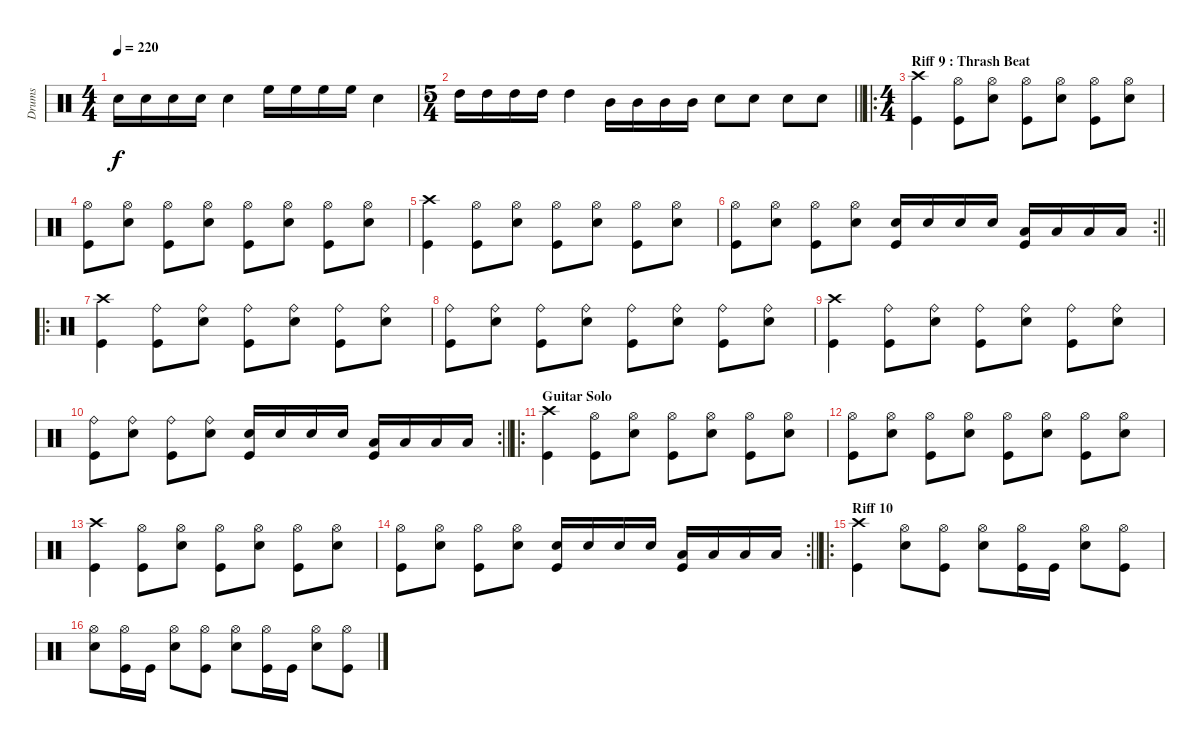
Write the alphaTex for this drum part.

\track ("Drums" "Drums") {instrument percussion}
\staff {score}
\articulation defaults
\ts (4 4)
\tempo 220
\clef neutral
\ks c "Electric Snare (hit)".16{dy f} "Electric Snare (hit)".16 "Electric Snare (hit)".16 "Electric Snare (hit)".16 "Snare (hit)".4 "High Floor Tom (hit)".16 "High Floor Tom (hit)".16 "High Floor Tom (hit)".16 "High Floor Tom (hit)".16 "Snare (hit)".4
|
\ts (5 4)
\barLineRight lightlight "High Tom (hit)".16 "High Tom (hit)".16 "High Tom (hit)".16 "High Tom (hit)".16 "High Tom (hit)".4 "Mid Tom (hit)".16 "Mid Tom (hit)".16 "Mid Tom (hit)".16 "Mid Tom (hit)".16 "Electric Snare (hit)".8 "Electric Snare (hit)".8 "Electric Snare (hit)".8 "Electric Snare (hit)".8
|
\ro
\ts (4 4)
\section ("" "Riff 9 : Thrash Beat")
("Crash high (hit)" "Kick (hit)").4 ("Hi-Hat (open)" "Kick (hit)").8 ("Hi-Hat (open)" "Electric Snare (hit)").8 ("Hi-Hat (open)" "Kick (hit)").8 ("Hi-Hat (open)" "Electric Snare (hit)").8 ("Hi-Hat (open)" "Kick (hit)").8 ("Hi-Hat (open)" "Electric Snare (hit)").8 |
("Hi-Hat (open)" "Kick (hit)").8 ("Hi-Hat (open)" "Electric Snare (hit)").8 ("Hi-Hat (open)" "Kick (hit)").8 ("Hi-Hat (open)" "Electric Snare (hit)").8 ("Hi-Hat (open)" "Kick (hit)").8 ("Hi-Hat (open)" "Electric Snare (hit)").8 ("Hi-Hat (open)" "Kick (hit)").8 ("Hi-Hat (open)" "Electric Snare (hit)").8 |
("Crash high (hit)" "Kick (hit)").4 ("Hi-Hat (open)" "Kick (hit)").8 ("Hi-Hat (open)" "Electric Snare (hit)").8 ("Hi-Hat (open)" "Kick (hit)").8 ("Hi-Hat (open)" "Electric Snare (hit)").8 ("Hi-Hat (open)" "Kick (hit)").8 ("Hi-Hat (open)" "Electric Snare (hit)").8 |
\rc 2
\barLineRight lightlight
("Hi-Hat (open)" "Kick (hit)").8 ("Hi-Hat (open)" "Electric Snare (hit)").8 ("Hi-Hat (open)" "Kick (hit)").8 ("Hi-Hat (open)" "Electric Snare (hit)").8 ("Electric Snare (hit)" "Kick (hit)").16 "Electric Snare (hit)".16 "Electric Snare (hit)".16 "Electric Snare (hit)".16 ("Low Tom (hit)" "Kick (hit)").16 "Low Tom (hit)".16 "Low Tom (hit)".16 "Low Tom (hit)".16 |
\ro
("Crash high (hit)" "Kick (hit)").4 ("Ride (bell)" "Kick (hit)").8 ("Ride (bell)" "Electric Snare (hit)").8 ("Ride (bell)" "Kick (hit)").8 ("Ride (bell)" "Electric Snare (hit)").8 ("Ride (bell)" "Kick (hit)").8 ("Ride (bell)" "Electric Snare (hit)").8 |
("Ride (bell)" "Kick (hit)").8 ("Ride (bell)" "Electric Snare (hit)").8 ("Ride (bell)" "Kick (hit)").8 ("Ride (bell)" "Electric Snare (hit)").8 ("Ride (bell)" "Kick (hit)").8 ("Ride (bell)" "Electric Snare (hit)").8 ("Ride (bell)" "Kick (hit)").8 ("Ride (bell)" "Electric Snare (hit)").8 |
("Crash high (hit)" "Kick (hit)").4 ("Ride (bell)" "Kick (hit)").8 ("Ride (bell)" "Electric Snare (hit)").8 ("Ride (bell)" "Kick (hit)").8 ("Ride (bell)" "Electric Snare (hit)").8 ("Ride (bell)" "Kick (hit)").8 ("Ride (bell)" "Electric Snare (hit)").8 |
\rc 2
\barLineRight lightlight
("Ride (bell)" "Kick (hit)").8 ("Ride (bell)" "Electric Snare (hit)").8 ("Ride (bell)" "Kick (hit)").8 ("Ride (bell)" "Electric Snare (hit)").8 ("Electric Snare (hit)" "Kick (hit)").16 "Electric Snare (hit)".16 "Electric Snare (hit)".16 "Electric Snare (hit)".16 ("Low Tom (hit)" "Kick (hit)").16 "Low Tom (hit)".16 "Low Tom (hit)".16 "Low Tom (hit)".16 |
\ro
\section ("" "Guitar Solo")
("Crash high (hit)" "Kick (hit)").4 ("Hi-Hat (open)" "Kick (hit)").8 ("Hi-Hat (open)" "Electric Snare (hit)").8 ("Hi-Hat (open)" "Kick (hit)").8 ("Hi-Hat (open)" "Electric Snare (hit)").8 ("Hi-Hat (open)" "Kick (hit)").8 ("Hi-Hat (open)" "Electric Snare (hit)").8 |
("Hi-Hat (open)" "Kick (hit)").8 ("Hi-Hat (open)" "Electric Snare (hit)").8 ("Hi-Hat (open)" "Kick (hit)").8 ("Hi-Hat (open)" "Electric Snare (hit)").8 ("Hi-Hat (open)" "Kick (hit)").8 ("Hi-Hat (open)" "Electric Snare (hit)").8 ("Hi-Hat (open)" "Kick (hit)").8 ("Hi-Hat (open)" "Electric Snare (hit)").8 |
("Crash high (hit)" "Kick (hit)").4 ("Hi-Hat (open)" "Kick (hit)").8 ("Hi-Hat (open)" "Electric Snare (hit)").8 ("Hi-Hat (open)" "Kick (hit)").8 ("Hi-Hat (open)" "Electric Snare (hit)").8 ("Hi-Hat (open)" "Kick (hit)").8 ("Hi-Hat (open)" "Electric Snare (hit)").8 |
\rc 2
\barLineRight lightlight
("Hi-Hat (open)" "Kick (hit)").8 ("Hi-Hat (open)" "Electric Snare (hit)").8 ("Hi-Hat (open)" "Kick (hit)").8 ("Hi-Hat (open)" "Electric Snare (hit)").8 ("Electric Snare (hit)" "Kick (hit)").16 "Electric Snare (hit)".16 "Electric Snare (hit)".16 "Electric Snare (hit)".16 ("Low Tom (hit)" "Kick (hit)").16 "Low Tom (hit)".16 "Low Tom (hit)".16 "Low Tom (hit)".16 |
\ro
\section ("" "Riff 10")
("Crash high (hit)" "Kick (hit)").4 ("Hi-Hat (open)" "Electric Snare (hit)").8 ("Hi-Hat (open)" "Kick (hit)").8 ("Hi-Hat (open)" "Electric Snare (hit)").8 ("Hi-Hat (open)" "Kick (hit)").16 "Kick (hit)".16 ("Hi-Hat (open)" "Electric Snare (hit)").8 ("Hi-Hat (open)" "Kick (hit)").8 |
("Hi-Hat (open)" "Electric Snare (hit)").8 ("Hi-Hat (open)" "Kick (hit)").16 "Kick (hit)".16 ("Hi-Hat (open)" "Electric Snare (hit)").8 ("Hi-Hat (open)" "Kick (hit)").8 ("Hi-Hat (open)" "Electric Snare (hit)").8 ("Hi-Hat (open)" "Kick (hit)").16 "Kick (hit)".16 ("Hi-Hat (open)" "Electric Snare (hit)").8 ("Hi-Hat (open)" "Kick (hit)").8
